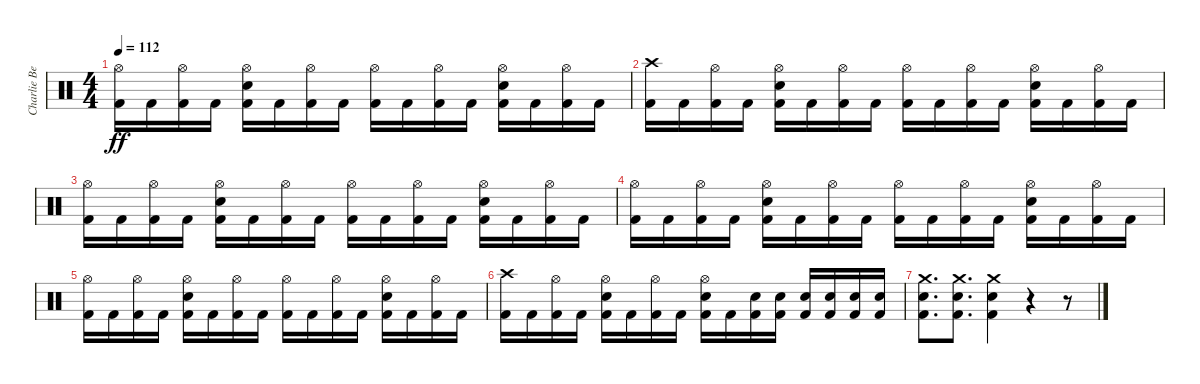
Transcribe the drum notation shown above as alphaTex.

\track ("Charlie Benante" "Charlie Be") {instrument percussion}
\staff {score}
\articulation defaults
\ts (4 4)
\tempo 112
\clef neutral
\ks c
("Hi-Hat (open)" "Kick (hit) 2").16{dy ff} "Kick (hit) 2".16 ("Hi-Hat (open)" "Kick (hit) 2").16 "Kick (hit) 2".16 ("Hi-Hat (open)" "Snare (hit) 2" "Kick (hit) 2").16 "Kick (hit) 2".16 ("Hi-Hat (open)" "Kick (hit) 2").16 "Kick (hit) 2".16 ("Hi-Hat (open)" "Kick (hit) 2").16 "Kick (hit) 2".16 ("Hi-Hat (open)" "Kick (hit) 2").16 "Kick (hit) 2".16 ("Hi-Hat (open)" "Snare (hit) 2" "Kick (hit) 2").16 "Kick (hit) 2".16 ("Hi-Hat (open)" "Kick (hit) 2").16 "Kick (hit) 2".16 |
("Crash high (hit)" "Kick (hit) 2").16 "Kick (hit) 2".16 ("Hi-Hat (open)" "Kick (hit) 2").16 "Kick (hit) 2".16 ("Hi-Hat (open)" "Snare (hit) 2" "Kick (hit) 2").16 "Kick (hit) 2".16 ("Hi-Hat (open)" "Kick (hit) 2").16 "Kick (hit) 2".16 ("Hi-Hat (open)" "Kick (hit) 2").16 "Kick (hit) 2".16 ("Hi-Hat (open)" "Kick (hit) 2").16 "Kick (hit) 2".16 ("Hi-Hat (open)" "Snare (hit) 2" "Kick (hit) 2").16 "Kick (hit) 2".16 ("Hi-Hat (open)" "Kick (hit) 2").16 "Kick (hit) 2".16 |
("Hi-Hat (open)" "Kick (hit) 2").16 "Kick (hit) 2".16 ("Hi-Hat (open)" "Kick (hit) 2").16 "Kick (hit) 2".16 ("Hi-Hat (open)" "Snare (hit) 2" "Kick (hit) 2").16 "Kick (hit) 2".16 ("Hi-Hat (open)" "Kick (hit) 2").16 "Kick (hit) 2".16 ("Hi-Hat (open)" "Kick (hit) 2").16 "Kick (hit) 2".16 ("Hi-Hat (open)" "Kick (hit) 2").16 "Kick (hit) 2".16 ("Hi-Hat (open)" "Snare (hit) 2" "Kick (hit) 2").16 "Kick (hit) 2".16 ("Hi-Hat (open)" "Kick (hit) 2").16 "Kick (hit) 2".16 |
("Hi-Hat (open)" "Kick (hit) 2").16 "Kick (hit) 2".16 ("Hi-Hat (open)" "Kick (hit) 2").16 "Kick (hit) 2".16 ("Hi-Hat (open)" "Snare (hit) 2" "Kick (hit) 2").16 "Kick (hit) 2".16 ("Hi-Hat (open)" "Kick (hit) 2").16 "Kick (hit) 2".16 ("Hi-Hat (open)" "Kick (hit) 2").16 "Kick (hit) 2".16 ("Hi-Hat (open)" "Kick (hit) 2").16 "Kick (hit) 2".16 ("Hi-Hat (open)" "Snare (hit) 2" "Kick (hit) 2").16 "Kick (hit) 2".16 ("Hi-Hat (open)" "Kick (hit) 2").16 "Kick (hit) 2".16 |
("Hi-Hat (open)" "Kick (hit) 2").16 "Kick (hit) 2".16 ("Hi-Hat (open)" "Kick (hit) 2").16 "Kick (hit) 2".16 ("Hi-Hat (open)" "Snare (hit) 2" "Kick (hit) 2").16 "Kick (hit) 2".16 ("Hi-Hat (open)" "Kick (hit) 2").16 "Kick (hit) 2".16 ("Hi-Hat (open)" "Kick (hit) 2").16 "Kick (hit) 2".16 ("Hi-Hat (open)" "Kick (hit) 2").16 "Kick (hit) 2".16 ("Hi-Hat (open)" "Snare (hit) 2" "Kick (hit) 2").16 "Kick (hit) 2".16 ("Hi-Hat (open)" "Kick (hit) 2").16 "Kick (hit) 2".16 |
("Crash high (hit)" "Kick (hit) 2").16 "Kick (hit) 2".16 ("Hi-Hat (open)" "Kick (hit) 2").16 "Kick (hit) 2".16 ("Hi-Hat (open)" "Snare (hit) 2" "Kick (hit) 2").16 "Kick (hit) 2".16 ("Hi-Hat (open)" "Kick (hit) 2").16 "Kick (hit) 2".16 ("Hi-Hat (open)" "Snare (hit) 2" "Kick (hit) 2").16 "Kick (hit) 2".16 ("Snare (hit) 2" "Kick (hit) 2").16 ("Snare (hit) 2" "Kick (hit) 2").16 ("Snare (hit) 2" "Kick (hit) 2").16 ("Snare (hit) 2" "Kick (hit) 2").16 ("Snare (hit) 2" "Kick (hit) 2").16 ("Snare (hit) 2" "Kick (hit) 2").16 |
("Crash medium (hit)" "Snare (hit) 2" "Kick (hit) 2").8{d} ("Crash medium (hit)" "Snare (hit) 2" "Kick (hit) 2").8{d} ("Crash medium (hit)" "Snare (hit) 2" "Kick (hit) 2").4 r.4 r.8
